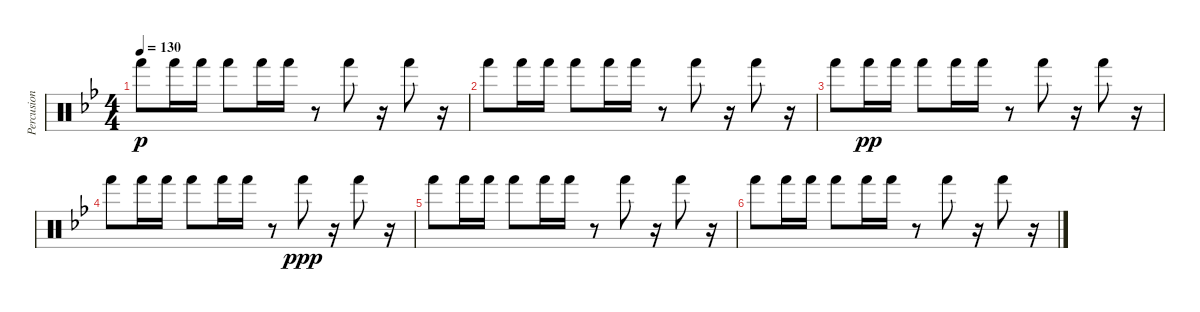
\track ("Percusion III" "Percusion ") {instrument percussion}
\staff {score}
\articulation defaults
\ts (4 4)
\tempo 130
\clef neutral
\ks gminor "Hand (hit)".8{dy p} "Hand (hit)".16 "Hand (hit)".16 "Hand (hit)".8 "Hand (hit)".16 "Hand (hit)".16
r.8 "Hand (hit)".8 r.16 "Hand (hit)".8 r.16 |
"Hand (hit)".8 "Hand (hit)".16 "Hand (hit)".16 "Hand (hit)".8 "Hand (hit)".16 "Hand (hit)".16 r.8 "Hand (hit)".8 r.16 "Hand (hit)".8 r.16 |
"Hand (hit)".8 "Hand (hit)".16{dy pp} "Hand (hit)".16 "Hand (hit)".8 "Hand (hit)".16 "Hand (hit)".16 r.8 "Hand (hit)".8 r.16 "Hand (hit)".8 r.16 |
"Hand (hit)".8 "Hand (hit)".16 "Hand (hit)".16 "Hand (hit)".8 "Hand (hit)".16 "Hand (hit)".16 r.8 "Hand (hit)".8{dy ppp} r.16 "Hand (hit)".8 r.16 |
"Hand (hit)".8 "Hand (hit)".16 "Hand (hit)".16 "Hand (hit)".8 "Hand (hit)".16 "Hand (hit)".16 r.8 "Hand (hit)".8 r.16 "Hand (hit)".8 r.16 |
"Hand (hit)".8 "Hand (hit)".16 "Hand (hit)".16 "Hand (hit)".8 "Hand (hit)".16 "Hand (hit)".16 r.8 "Hand (hit)".8 r.16 "Hand (hit)".8 r.16
